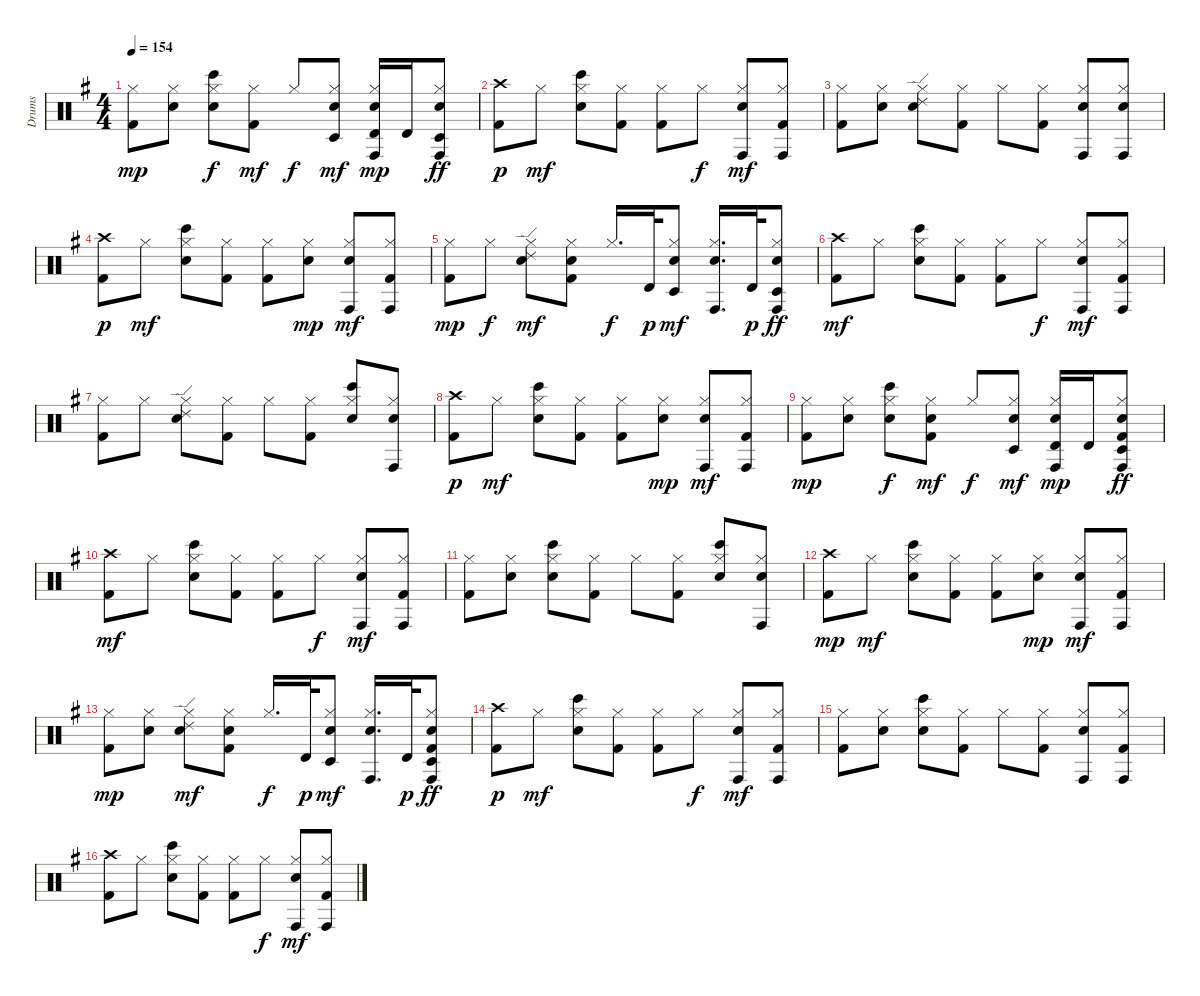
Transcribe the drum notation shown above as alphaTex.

\track ("Drums" "Drums") {instrument percussion}
\staff {score}
\articulation defaults
\ts (4 4)
\tempo 154
\clef neutral
\ks g
("Kick (hit) 2" "Hi-Hat (closed)").8{dy mp} ("Electric Snare (hit)" "Hi-Hat (closed)").8 ("Electric Snare (hit)" "Hi-Hat (closed)" "Bongo High (hit)").8{dy f} ("Kick (hit) 2" "Hi-Hat (closed)").8{dy mf} "Hi-Hat (closed)".8{dy f} ("Electric Snare (hit)" "Hi-Hat (closed)" "Timbale low (hit)").8{dy mf} ("Electric Snare (hit)" "Hi-Hat (closed)" "Conga high (hit)" "Timbale high (hit)").16{dy mp} "Timbale high (hit)".16 ("Electric Snare (hit)" "Hi-Hat (closed)" "Conga high (hit)" "Timbale low (hit)").8{dy ff} |
("Kick (hit) 2" "Crash high (hit)").8{dy p} "Hi-Hat (closed)".8{dy mf} ("Electric Snare (hit)" "Hi-Hat (closed)" "Bongo High (hit)").8 ("Kick (hit) 2" "Hi-Hat (closed)").8 ("Kick (hit) 2" "Hi-Hat (closed)").8 "Hi-Hat (closed)".8{dy f} ("Electric Snare (hit)" "Hi-Hat (closed)" "Conga high (hit)").8{dy mf} ("Kick (hit) 2" "Hi-Hat (closed)" "Conga high (hit)").8 |
("Kick (hit) 2" "Hi-Hat (closed)").8 ("Electric Snare (hit)" "Hi-Hat (closed)").8 ("Electric Snare (hit)" "Hi-Hat (closed)" "Ride (edge) 2").8 ("Kick (hit) 2" "Hi-Hat (closed)").8 "Hi-Hat (closed)".8 ("Kick (hit) 2" "Hi-Hat (closed)").8 ("Electric Snare (hit)" "Hi-Hat (closed)" "Conga high (hit)").8 ("Electric Snare (hit)" "Hi-Hat (closed)" "Conga high (hit)").8 |
("Kick (hit) 2" "Crash high (hit)").8{dy p} "Hi-Hat (closed)".8{dy mf} ("Electric Snare (hit)" "Hi-Hat (closed)" "Bongo High (hit)").8 ("Kick (hit) 2" "Hi-Hat (closed)").8 ("Kick (hit) 2" "Hi-Hat (closed)").8 ("Electric Snare (hit)" "Hi-Hat (closed)").8{dy mp} ("Electric Snare (hit)" "Hi-Hat (closed)" "Conga high (hit)").8{dy mf} ("Kick (hit) 2" "Hi-Hat (closed)" "Conga high (hit)").8 |
("Kick (hit) 2" "Hi-Hat (closed)").8{dy mp} "Hi-Hat (closed)".8{dy f} ("Electric Snare (hit)" "Hi-Hat (closed)" "Ride (edge) 2").8{dy mf} ("Kick (hit) 2" "Electric Snare (hit)" "Hi-Hat (closed)").8 "Hi-Hat (closed)".16{d dy f} "Timbale high (hit)".32{dy p} ("Electric Snare (hit)" "Hi-Hat (closed)" "Timbale low (hit)").8{dy mf} ("Electric Snare (hit)" "Hi-Hat (closed)" "Conga high (hit)").16{d} "Timbale high (hit)".32{dy p} ("Electric Snare (hit)" "Hi-Hat (closed)" "Conga high (hit)" "Timbale low (hit)").8{dy ff} |
("Kick (hit) 2" "Crash high (hit)").8{dy mf} "Hi-Hat (closed)".8 ("Electric Snare (hit)" "Hi-Hat (closed)" "Bongo High (hit)").8 ("Kick (hit) 2" "Hi-Hat (closed)").8 ("Kick (hit) 2" "Hi-Hat (closed)").8 "Hi-Hat (closed)".8{dy f} ("Electric Snare (hit)" "Hi-Hat (closed)" "Conga high (hit)").8{dy mf} ("Kick (hit) 2" "Hi-Hat (closed)" "Conga high (hit)").8 |
("Kick (hit) 2" "Hi-Hat (closed)").8 "Hi-Hat (closed)".8 ("Electric Snare (hit)" "Hi-Hat (closed)" "Ride (edge) 2").8 ("Kick (hit) 2" "Hi-Hat (closed)").8 "Hi-Hat (closed)".8 ("Kick (hit) 2" "Hi-Hat (closed)").8 ("Electric Snare (hit)" "Hi-Hat (closed)" "Bongo High (hit)").8 ("Electric Snare (hit)" "Hi-Hat (closed)" "Conga high (hit)").8 |
("Kick (hit) 2" "Crash high (hit)").8{dy p} "Hi-Hat (closed)".8{dy mf} ("Electric Snare (hit)" "Hi-Hat (closed)" "Bongo High (hit)").8 ("Kick (hit) 2" "Hi-Hat (closed)").8 ("Kick (hit) 2" "Hi-Hat (closed)").8 ("Electric Snare (hit)" "Hi-Hat (closed)").8{dy mp} ("Electric Snare (hit)" "Hi-Hat (closed)" "Conga high (hit)").8{dy mf} ("Kick (hit) 2" "Hi-Hat (closed)" "Conga high (hit)").8 |
("Kick (hit) 2" "Hi-Hat (closed)").8{dy mp} ("Electric Snare (hit)" "Hi-Hat (closed)").8 ("Electric Snare (hit)" "Hi-Hat (closed)" "Bongo High (hit)").8{dy f} ("Kick (hit) 2" "Electric Snare (hit)" "Hi-Hat (closed)").8{dy mf} "Hi-Hat (closed)".8{dy f} ("Electric Snare (hit)" "Hi-Hat (closed)" "Timbale low (hit)").8{dy mf} ("Electric Snare (hit)" "Hi-Hat (closed)" "Conga high (hit)" "Timbale high (hit)").16{dy mp} "Timbale high (hit)".16 ("Kick (hit) 2" "Electric Snare (hit)" "Hi-Hat (closed)" "Conga high (hit)" "Timbale low (hit)").8{dy ff} |
("Kick (hit) 2" "Crash high (hit)").8{dy mf} "Hi-Hat (closed)".8 ("Electric Snare (hit)" "Hi-Hat (closed)" "Bongo High (hit)").8 ("Kick (hit) 2" "Hi-Hat (closed)").8 ("Kick (hit) 2" "Hi-Hat (closed)").8 "Hi-Hat (closed)".8{dy f} ("Electric Snare (hit)" "Hi-Hat (closed)" "Conga high (hit)").8{dy mf} ("Kick (hit) 2" "Hi-Hat (closed)" "Conga high (hit)").8 |
("Kick (hit) 2" "Hi-Hat (closed)").8 ("Electric Snare (hit)" "Hi-Hat (closed)").8 ("Electric Snare (hit)" "Hi-Hat (closed)" "Bongo High (hit)").8 ("Kick (hit) 2" "Hi-Hat (closed)").8 "Hi-Hat (closed)".8 ("Kick (hit) 2" "Hi-Hat (closed)").8 ("Electric Snare (hit)" "Hi-Hat (closed)" "Bongo High (hit)").8 ("Electric Snare (hit)" "Hi-Hat (closed)" "Conga high (hit)").8 |
("Kick (hit) 2" "Crash high (hit)").8{dy mp} "Hi-Hat (closed)".8{dy mf} ("Electric Snare (hit)" "Hi-Hat (closed)" "Bongo High (hit)").8 ("Kick (hit) 2" "Hi-Hat (closed)").8 ("Kick (hit) 2" "Hi-Hat (closed)").8 ("Electric Snare (hit)" "Hi-Hat (closed)").8{dy mp} ("Electric Snare (hit)" "Hi-Hat (closed)" "Conga high (hit)").8{dy mf} ("Kick (hit) 2" "Hi-Hat (closed)" "Conga high (hit)").8 |
("Kick (hit) 2" "Hi-Hat (closed)").8{dy mp} ("Electric Snare (hit)" "Hi-Hat (closed)").8 ("Electric Snare (hit)" "Hi-Hat (closed)" "Ride (edge) 2").8{dy mf} ("Kick (hit) 2" "Electric Snare (hit)" "Hi-Hat (closed)").8 "Hi-Hat (closed)".16{d dy f} "Timbale high (hit)".32{dy p} ("Electric Snare (hit)" "Hi-Hat (closed)" "Timbale low (hit)").8{dy mf} ("Electric Snare (hit)" "Hi-Hat (closed)" "Conga high (hit)").16{d} "Timbale high (hit)".32{dy p} ("Kick (hit) 2" "Electric Snare (hit)" "Hi-Hat (closed)" "Conga high (hit)" "Timbale low (hit)").8{dy ff} |
("Kick (hit) 2" "Crash high (hit)").8{dy p} "Hi-Hat (closed)".8{dy mf} ("Electric Snare (hit)" "Hi-Hat (closed)" "Bongo High (hit)").8 ("Kick (hit) 2" "Hi-Hat (closed)").8 ("Kick (hit) 2" "Hi-Hat (closed)").8 "Hi-Hat (closed)".8{dy f} ("Electric Snare (hit)" "Hi-Hat (closed)" "Conga high (hit)").8{dy mf} ("Kick (hit) 2" "Hi-Hat (closed)" "Conga high (hit)").8 |
("Kick (hit) 2" "Hi-Hat (closed)").8 ("Electric Snare (hit)" "Hi-Hat (closed)").8 ("Electric Snare (hit)" "Hi-Hat (closed)" "Bongo High (hit)").8 ("Kick (hit) 2" "Hi-Hat (closed)").8 "Hi-Hat (closed)".8 ("Kick (hit) 2" "Hi-Hat (closed)").8 ("Electric Snare (hit)" "Hi-Hat (closed)" "Conga high (hit)").8 ("Kick (hit) 2" "Hi-Hat (closed)" "Conga high (hit)").8 |
("Kick (hit) 2" "Crash high (hit)").8 "Hi-Hat (closed)".8 ("Electric Snare (hit)" "Hi-Hat (closed)" "Bongo High (hit)").8 ("Kick (hit) 2" "Hi-Hat (closed)").8 ("Kick (hit) 2" "Hi-Hat (closed)").8 "Hi-Hat (closed)".8{dy f} ("Electric Snare (hit)" "Hi-Hat (closed)" "Conga high (hit)").8{dy mf} ("Kick (hit) 2" "Hi-Hat (closed)" "Conga high (hit)").8
